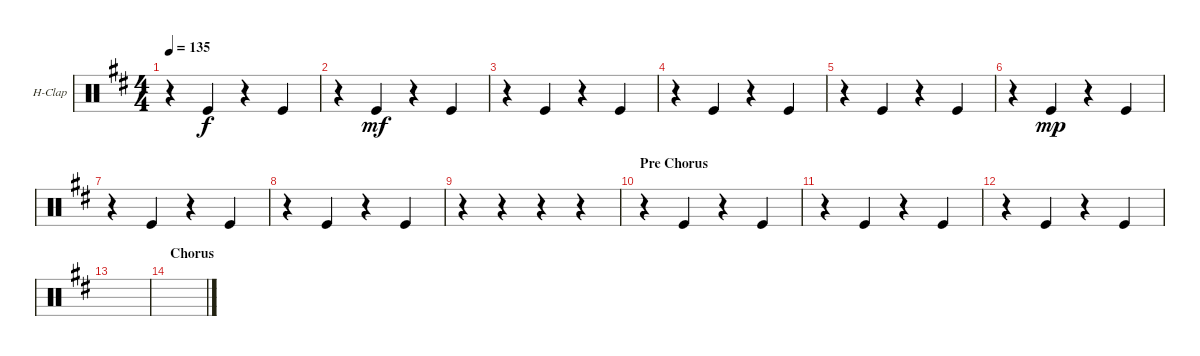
\defaultSystemsLayout 4
\bracketExtendMode groupsimilarinstruments
\firstSystemTrackNameOrientation horizontal
\otherSystemsTrackNameOrientation horizontal
\track ("Hand Clap" "H-Clap") {instrument percussion}
\staff {score}
\articulation defaults
\ts (4 4)
\tempo 135
\clef neutral
\ks bminor
r.4{dy f} "Kick (hit)".4 r.4 "Kick (hit)".4 |
r.4 "Kick (hit)".4{dy mf} r.4 "Kick (hit)".4 |
r.4 "Kick (hit)".4 r.4 "Kick (hit)".4 |
r.4 "Kick (hit)".4 r.4 "Kick (hit)".4 |
r.4 "Kick (hit)".4 r.4 "Kick (hit)".4 |
r.4 "Kick (hit)".4{dy mp} r.4 "Kick (hit)".4 |
r.4 "Kick (hit)".4 r.4 "Kick (hit)".4 |
r.4 "Kick (hit)".4 r.4 "Kick (hit)".4 |
r.4 r.4 r.4 r.4 |
\section ("" "Pre Chorus")
r.4 "Kick (hit)".4 r.4 "Kick (hit)".4 |
r.4 "Kick (hit)".4 r.4 "Kick (hit)".4 |
r.4 "Kick (hit)".4 r.4 "Kick (hit)".4 |
|
\section ("" "Chorus")
